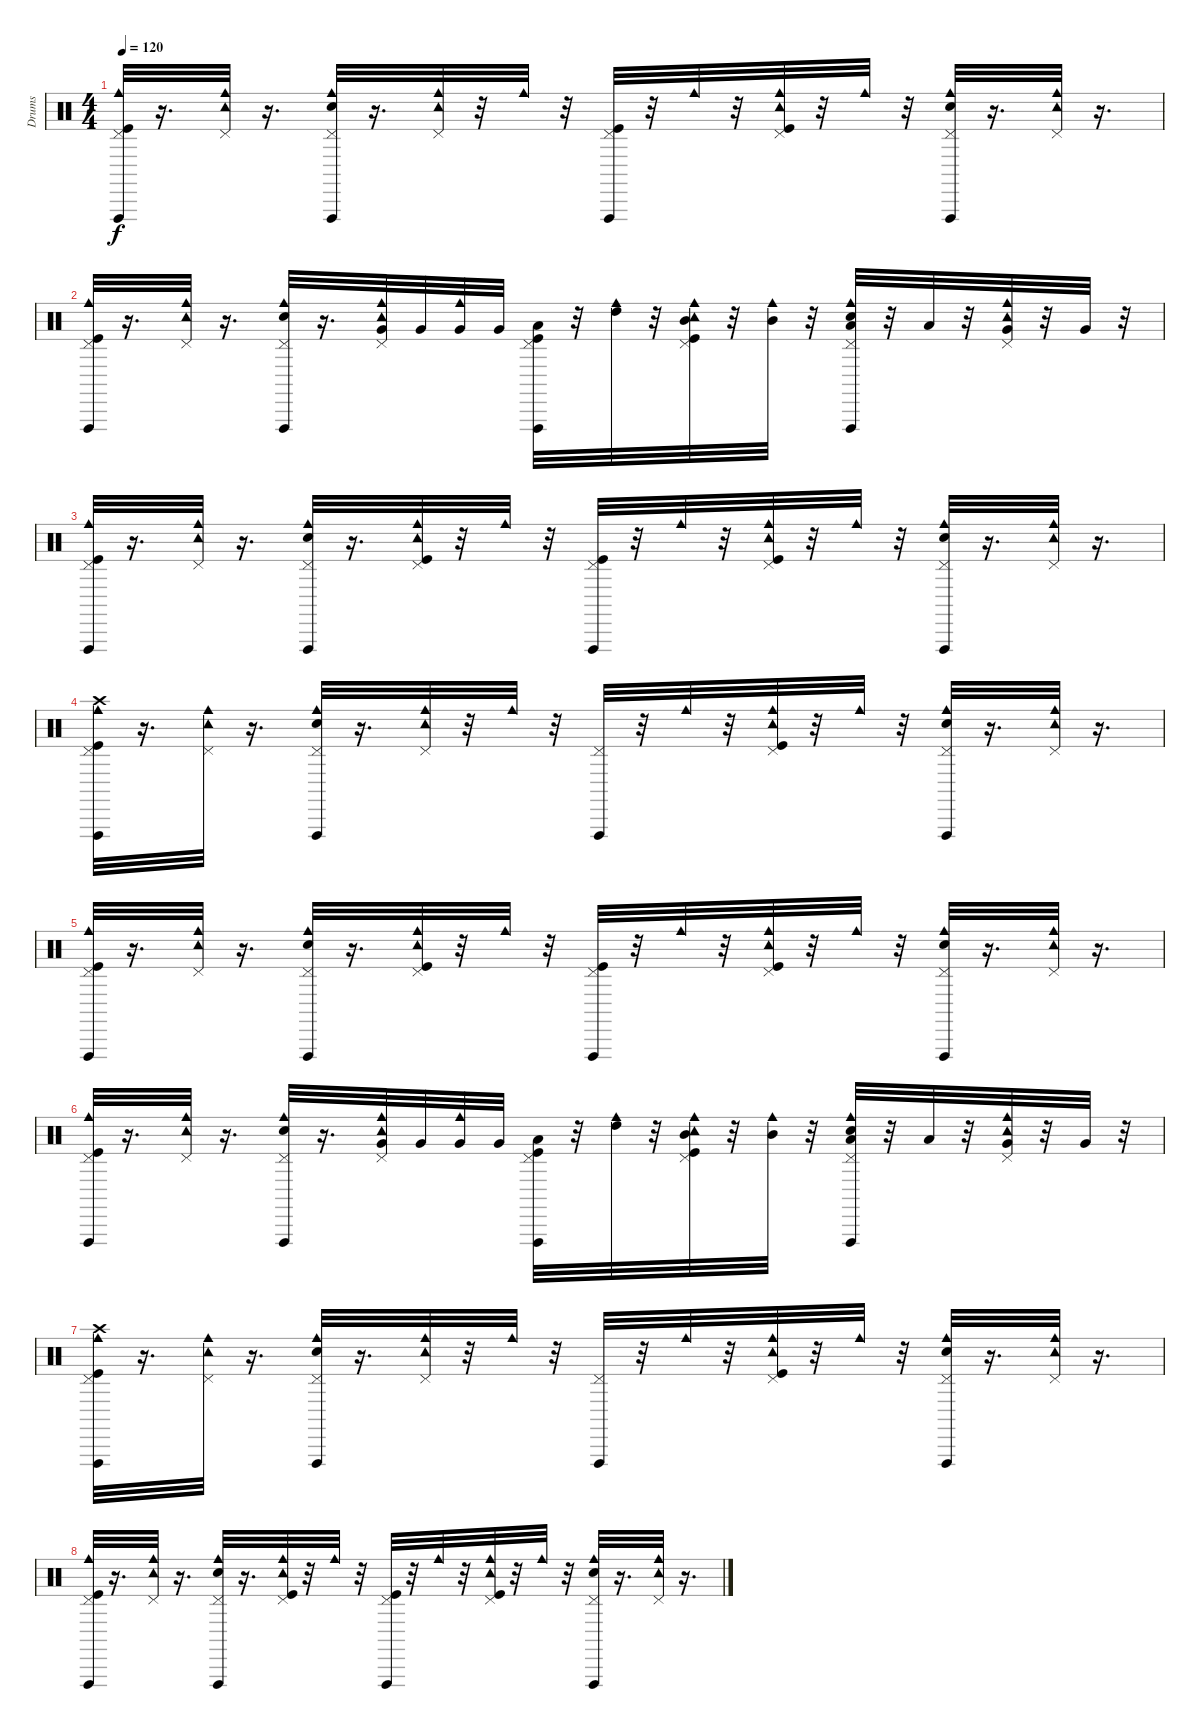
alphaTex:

\track ("Drums" "Drums") {instrument percussion}
\staff {score}
\articulation defaults
\ts (4 4)
\tempo 120
\clef neutral
\ks c
("Kick (hit)" "Vibraslap (hit)" "Cowbell medium (hit)" "Pedal Hi-Hat (hit)").32{dy f} r.16{d} ("Tambourine (hit)" "Pedal Hi-Hat (hit)" "Cowbell medium (hit)").32 r.16{d} ("Snare (hit) 2" "Pedal Hi-Hat (hit)" "Vibraslap (hit)" "Cowbell medium (hit)").32 r.16{d} ("Pedal Hi-Hat (hit)" "Tambourine (hit)" "Cowbell medium (hit)").32 r.32 "Cowbell medium (hit)".32 r.32 ("Kick (hit)" "Pedal Hi-Hat (hit)" "Vibraslap (hit)").32 r.32 "Cowbell medium (hit)".32 r.32 ("Kick (hit)" "Cowbell medium (hit)" "Tambourine (hit)" "Pedal Hi-Hat (hit)").32 r.32 "Cowbell medium (hit)".32 r.32 ("Snare (hit) 2" "Vibraslap (hit)" "Cowbell medium (hit)" "Pedal Hi-Hat (hit)").32 r.16{d} ("Pedal Hi-Hat (hit)" "Tambourine (hit)" "Cowbell medium (hit)").32 r.16{d} |
("Cowbell medium (hit)" "Pedal Hi-Hat (hit)" "Kick (hit)" "Vibraslap (hit)").32 r.16{d} ("Pedal Hi-Hat (hit)" "Cowbell medium (hit)" "Tambourine (hit)").32 r.16{d} ("Pedal Hi-Hat (hit)" "Cowbell medium (hit)" "Snare (hit) 2" "Vibraslap (hit)").32 r.16{d} ("Cowbell medium (hit)" "Pedal Hi-Hat (hit)" "Tambourine (hit)" "Very Low Tom (hit)").32 "Very Low Tom (hit)".32 ("Cowbell medium (hit)" "Very Low Tom (hit)").32 "Very Low Tom (hit)".32 ("Low Tom (hit)" "Kick (hit)" "Pedal Hi-Hat (hit)" "Vibraslap (hit)").32 r.32 ("High Tom (hit)" "Cowbell medium (hit)").32 r.32 ("Tambourine (hit)" "Pedal Hi-Hat (hit)" "Mid Tom (hit)" "Kick (hit)" "Cowbell medium (hit)").32 r.32 ("Mid Tom (hit)" "Cowbell medium (hit)").32 r.32 ("Low Tom (hit)" "Snare (hit) 2" "Pedal Hi-Hat (hit)" "Cowbell medium (hit)" "Vibraslap (hit)").32 r.32 "Low Tom (hit)".32 r.32 ("Very Low Tom (hit)" "Pedal Hi-Hat (hit)" "Tambourine (hit)" "Cowbell medium (hit)").32 r.32 "Very Low Tom (hit)".32 r.32 |
("Vibraslap (hit)" "Cowbell medium (hit)" "Pedal Hi-Hat (hit)" "Kick (hit)").32 r.16{d} ("Tambourine (hit)" "Pedal Hi-Hat (hit)" "Cowbell medium (hit)").32 r.16{d} ("Pedal Hi-Hat (hit)" "Snare (hit) 2" "Cowbell medium (hit)" "Vibraslap (hit)").32 r.16{d} ("Tambourine (hit)" "Pedal Hi-Hat (hit)" "Kick (hit)" "Cowbell medium (hit)").32 r.32 "Cowbell medium (hit)".32 r.32 ("Pedal Hi-Hat (hit)" "Vibraslap (hit)" "Kick (hit)").32 r.32 "Cowbell medium (hit)".32 r.32 ("Tambourine (hit)" "Pedal Hi-Hat (hit)" "Cowbell medium (hit)" "Kick (hit)").32 r.32 "Cowbell medium (hit)".32 r.32 ("Vibraslap (hit)" "Pedal Hi-Hat (hit)" "Cowbell medium (hit)" "Snare (hit) 2").32 r.16{d} ("Tambourine (hit)" "Cowbell medium (hit)" "Pedal Hi-Hat (hit)").32 r.16{d} |
("Vibraslap (hit)" "Cowbell medium (hit)" "Pedal Hi-Hat (hit)" "Crash high (hit)" "Kick (hit)").32 r.16{d} ("Pedal Hi-Hat (hit)" "Tambourine (hit)" "Cowbell medium (hit)").32 r.16{d} ("Snare (hit) 2" "Cowbell medium (hit)" "Vibraslap (hit)" "Pedal Hi-Hat (hit)").32 r.16{d} ("Cowbell medium (hit)" "Pedal Hi-Hat (hit)" "Tambourine (hit)").32 r.32 "Cowbell medium (hit)".32 r.32 ("Vibraslap (hit)" "Pedal Hi-Hat (hit)").32 r.32 "Cowbell medium (hit)".32 r.32 ("Tambourine (hit)" "Cowbell medium (hit)" "Pedal Hi-Hat (hit)" "Kick (hit)").32 r.32 "Cowbell medium (hit)".32 r.32 ("Cowbell medium (hit)" "Vibraslap (hit)" "Snare (hit) 2" "Pedal Hi-Hat (hit)").32 r.16{d} ("Pedal Hi-Hat (hit)" "Cowbell medium (hit)" "Tambourine (hit)").32 r.16{d} |
("Kick (hit)" "Cowbell medium (hit)" "Pedal Hi-Hat (hit)" "Vibraslap (hit)").32 r.16{d} ("Tambourine (hit)" "Pedal Hi-Hat (hit)" "Cowbell medium (hit)").32 r.16{d} ("Pedal Hi-Hat (hit)" "Snare (hit) 2" "Cowbell medium (hit)" "Vibraslap (hit)").32 r.16{d} ("Pedal Hi-Hat (hit)" "Tambourine (hit)" "Kick (hit)" "Cowbell medium (hit)").32 r.32 "Cowbell medium (hit)".32 r.32 ("Pedal Hi-Hat (hit)" "Kick (hit)" "Vibraslap (hit)").32 r.32 "Cowbell medium (hit)".32 r.32 ("Tambourine (hit)" "Pedal Hi-Hat (hit)" "Cowbell medium (hit)" "Kick (hit)").32 r.32 "Cowbell medium (hit)".32 r.32 ("Cowbell medium (hit)" "Pedal Hi-Hat (hit)" "Snare (hit) 2" "Vibraslap (hit)").32 r.16{d} ("Pedal Hi-Hat (hit)" "Tambourine (hit)" "Cowbell medium (hit)").32 r.16{d} |
("Cowbell medium (hit)" "Pedal Hi-Hat (hit)" "Kick (hit)" "Vibraslap (hit)").32 r.16{d} ("Pedal Hi-Hat (hit)" "Cowbell medium (hit)" "Tambourine (hit)").32 r.16{d} ("Pedal Hi-Hat (hit)" "Cowbell medium (hit)" "Snare (hit) 2" "Vibraslap (hit)").32 r.16{d} ("Cowbell medium (hit)" "Pedal Hi-Hat (hit)" "Tambourine (hit)" "Very Low Tom (hit)").32 "Very Low Tom (hit)".32 ("Cowbell medium (hit)" "Very Low Tom (hit)").32 "Very Low Tom (hit)".32 ("Low Tom (hit)" "Kick (hit)" "Pedal Hi-Hat (hit)" "Vibraslap (hit)").32 r.32 ("High Tom (hit)" "Cowbell medium (hit)").32 r.32 ("Tambourine (hit)" "Pedal Hi-Hat (hit)" "Mid Tom (hit)" "Kick (hit)" "Cowbell medium (hit)").32 r.32 ("Mid Tom (hit)" "Cowbell medium (hit)").32 r.32 ("Low Tom (hit)" "Snare (hit) 2" "Pedal Hi-Hat (hit)" "Cowbell medium (hit)" "Vibraslap (hit)").32 r.32 "Low Tom (hit)".32 r.32 ("Very Low Tom (hit)" "Pedal Hi-Hat (hit)" "Tambourine (hit)" "Cowbell medium (hit)").32 r.32 "Very Low Tom (hit)".32 r.32 |
("Vibraslap (hit)" "Cowbell medium (hit)" "Pedal Hi-Hat (hit)" "Crash high (hit)" "Kick (hit)").32 r.16{d} ("Pedal Hi-Hat (hit)" "Tambourine (hit)" "Cowbell medium (hit)").32 r.16{d} ("Snare (hit) 2" "Cowbell medium (hit)" "Vibraslap (hit)" "Pedal Hi-Hat (hit)").32 r.16{d} ("Cowbell medium (hit)" "Pedal Hi-Hat (hit)" "Tambourine (hit)").32 r.32 "Cowbell medium (hit)".32 r.32 ("Vibraslap (hit)" "Pedal Hi-Hat (hit)").32 r.32 "Cowbell medium (hit)".32 r.32 ("Tambourine (hit)" "Cowbell medium (hit)" "Pedal Hi-Hat (hit)" "Kick (hit)").32 r.32 "Cowbell medium (hit)".32 r.32 ("Cowbell medium (hit)" "Vibraslap (hit)" "Snare (hit) 2" "Pedal Hi-Hat (hit)").32 r.16{d} ("Pedal Hi-Hat (hit)" "Cowbell medium (hit)" "Tambourine (hit)").32 r.16{d} |
("Kick (hit)" "Cowbell medium (hit)" "Pedal Hi-Hat (hit)" "Vibraslap (hit)").32 r.16{d} ("Tambourine (hit)" "Pedal Hi-Hat (hit)" "Cowbell medium (hit)").32 r.16{d} ("Pedal Hi-Hat (hit)" "Snare (hit) 2" "Cowbell medium (hit)" "Vibraslap (hit)").32 r.16{d} ("Pedal Hi-Hat (hit)" "Tambourine (hit)" "Kick (hit)" "Cowbell medium (hit)").32 r.32 "Cowbell medium (hit)".32 r.32 ("Pedal Hi-Hat (hit)" "Kick (hit)" "Vibraslap (hit)").32 r.32 "Cowbell medium (hit)".32 r.32 ("Tambourine (hit)" "Pedal Hi-Hat (hit)" "Cowbell medium (hit)" "Kick (hit)").32 r.32 "Cowbell medium (hit)".32 r.32 ("Cowbell medium (hit)" "Pedal Hi-Hat (hit)" "Snare (hit) 2" "Vibraslap (hit)").32 r.16{d} ("Pedal Hi-Hat (hit)" "Tambourine (hit)" "Cowbell medium (hit)").32 r.16{d}
